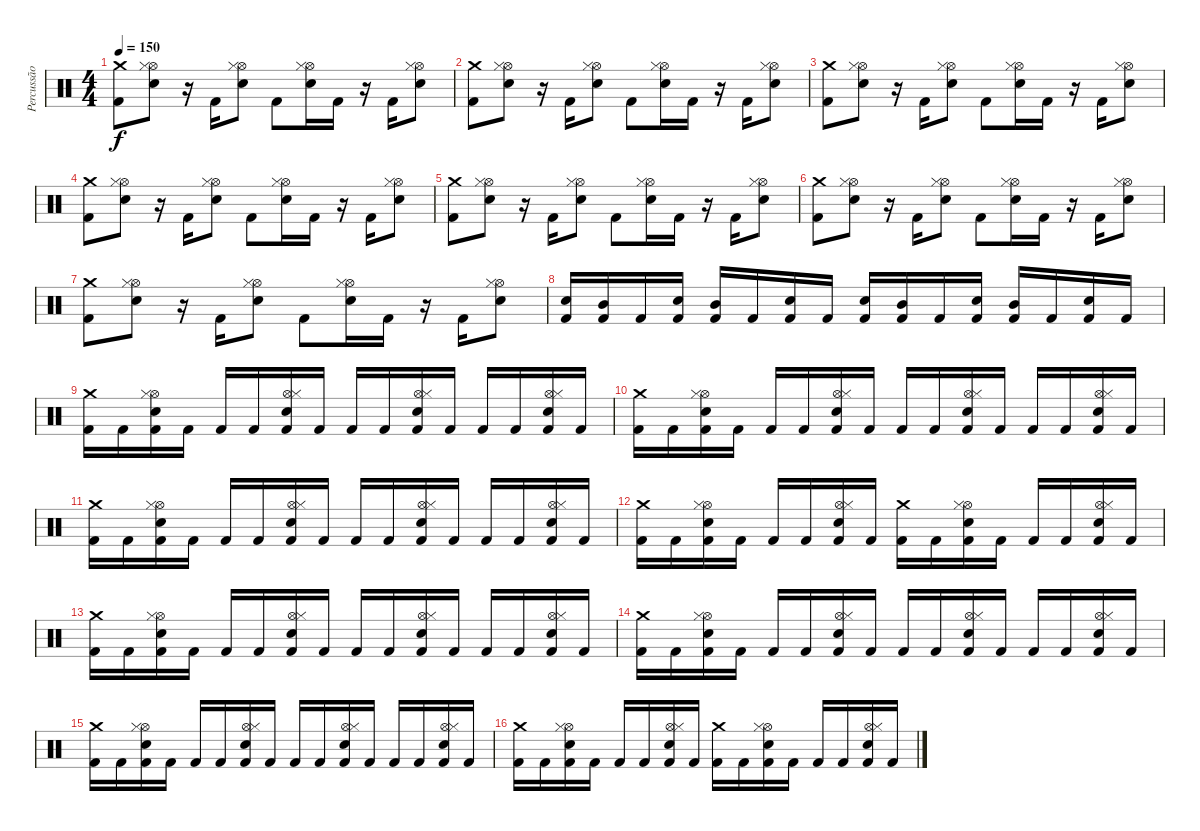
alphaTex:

\track ("Percussão" "Percussão") {instrument percussion}
\staff {score}
\articulation defaults
\ts (4 4)
\tempo 150
\clef neutral
\ks c
("Crash medium (hit)" "Kick (hit) 2").8{dy f} ("Hi-Hat (open)" "Hi-Hat (closed)" "Snare (hit) 2").8 r.16 "Kick (hit) 2".16 ("Hi-Hat (open)" "Hi-Hat (closed)" "Snare (hit) 2").8 "Kick (hit) 2".8 ("Hi-Hat (open)" "Hi-Hat (closed)" "Snare (hit) 2").16 "Kick (hit) 2".16 r.16 "Kick (hit) 2".16 ("Hi-Hat (open)" "Hi-Hat (closed)" "Snare (hit) 2").8 |
("Crash medium (hit)" "Kick (hit) 2").8 ("Hi-Hat (open)" "Hi-Hat (closed)" "Snare (hit) 2").8 r.16 "Kick (hit) 2".16 ("Hi-Hat (open)" "Hi-Hat (closed)" "Snare (hit) 2").8 "Kick (hit) 2".8 ("Hi-Hat (open)" "Hi-Hat (closed)" "Snare (hit) 2").16 "Kick (hit) 2".16 r.16 "Kick (hit) 2".16 ("Hi-Hat (open)" "Hi-Hat (closed)" "Snare (hit) 2").8 |
("Crash medium (hit)" "Kick (hit) 2").8 ("Hi-Hat (open)" "Hi-Hat (closed)" "Snare (hit) 2").8 r.16 "Kick (hit) 2".16 ("Hi-Hat (open)" "Hi-Hat (closed)" "Snare (hit) 2").8 "Kick (hit) 2".8 ("Hi-Hat (open)" "Hi-Hat (closed)" "Snare (hit) 2").16 "Kick (hit) 2".16 r.16 "Kick (hit) 2".16 ("Hi-Hat (open)" "Hi-Hat (closed)" "Snare (hit) 2").8 |
("Crash medium (hit)" "Kick (hit) 2").8 ("Hi-Hat (open)" "Hi-Hat (closed)" "Snare (hit) 2").8 r.16 "Kick (hit) 2".16 ("Hi-Hat (open)" "Hi-Hat (closed)" "Snare (hit) 2").8 "Kick (hit) 2".8 ("Hi-Hat (open)" "Hi-Hat (closed)" "Snare (hit) 2").16 "Kick (hit) 2".16 r.16 "Kick (hit) 2".16 ("Hi-Hat (open)" "Hi-Hat (closed)" "Snare (hit) 2").8 |
("Crash medium (hit)" "Kick (hit) 2").8 ("Hi-Hat (open)" "Hi-Hat (closed)" "Snare (hit) 2").8 r.16 "Kick (hit) 2".16 ("Hi-Hat (open)" "Hi-Hat (closed)" "Snare (hit) 2").8 "Kick (hit) 2".8 ("Hi-Hat (open)" "Hi-Hat (closed)" "Snare (hit) 2").16 "Kick (hit) 2".16 r.16 "Kick (hit) 2".16 ("Hi-Hat (open)" "Hi-Hat (closed)" "Snare (hit) 2").8 |
("Crash medium (hit)" "Kick (hit) 2").8 ("Hi-Hat (open)" "Hi-Hat (closed)" "Snare (hit) 2").8 r.16 "Kick (hit) 2".16 ("Hi-Hat (open)" "Hi-Hat (closed)" "Snare (hit) 2").8 "Kick (hit) 2".8 ("Hi-Hat (open)" "Hi-Hat (closed)" "Snare (hit) 2").16 "Kick (hit) 2".16 r.16 "Kick (hit) 2".16 ("Hi-Hat (open)" "Hi-Hat (closed)" "Snare (hit) 2").8 |
("Crash medium (hit)" "Kick (hit) 2").8 ("Hi-Hat (open)" "Hi-Hat (closed)" "Snare (hit) 2").8 r.16 "Kick (hit) 2".16 ("Hi-Hat (open)" "Hi-Hat (closed)" "Snare (hit) 2").8 "Kick (hit) 2".8 ("Hi-Hat (open)" "Hi-Hat (closed)" "Snare (hit) 2").16 "Kick (hit) 2".16 r.16 "Kick (hit) 2".16 ("Hi-Hat (open)" "Hi-Hat (closed)" "Snare (hit) 2").8 |
("Snare (hit) 2" "Kick (hit) 2").16 ("Mid Tom (hit)" "Kick (hit) 2").16 "Kick (hit) 2".16 ("Snare (hit) 2" "Kick (hit) 2").16 ("Mid Tom (hit)" "Kick (hit) 2").16 "Kick (hit) 2".16 ("Snare (hit) 2" "Kick (hit) 2").16 "Kick (hit) 2".16 ("Snare (hit) 2" "Kick (hit) 2").16 ("Mid Tom (hit)" "Kick (hit) 2").16 "Kick (hit) 2".16 ("Snare (hit) 2" "Kick (hit) 2").16 ("Mid Tom (hit)" "Kick (hit) 2").16 "Kick (hit) 2".16 ("Snare (hit) 2" "Kick (hit) 2").16 "Kick (hit) 2".16 |
("Crash medium (hit)" "Kick (hit) 2").16 "Kick (hit) 2".16 ("Hi-Hat (open)" "Hi-Hat (closed)" "Snare (hit) 2" "Kick (hit) 2").16 "Kick (hit) 2".16 "Kick (hit) 2".16 "Kick (hit) 2".16 ("Hi-Hat (open)" "Hi-Hat (closed)" "Snare (hit) 2" "Kick (hit) 2").16 "Kick (hit) 2".16 "Kick (hit) 2".16 "Kick (hit) 2".16 ("Hi-Hat (open)" "Hi-Hat (closed)" "Snare (hit) 2" "Kick (hit) 2").16 "Kick (hit) 2".16 "Kick (hit) 2".16 "Kick (hit) 2".16 ("Hi-Hat (open)" "Hi-Hat (closed)" "Snare (hit) 2" "Kick (hit) 2").16 "Kick (hit) 2".16 |
("Crash medium (hit)" "Kick (hit) 2").16 "Kick (hit) 2".16 ("Hi-Hat (open)" "Hi-Hat (closed)" "Snare (hit) 2" "Kick (hit) 2").16 "Kick (hit) 2".16 "Kick (hit) 2".16 "Kick (hit) 2".16 ("Hi-Hat (open)" "Hi-Hat (closed)" "Snare (hit) 2" "Kick (hit) 2").16 "Kick (hit) 2".16 "Kick (hit) 2".16 "Kick (hit) 2".16 ("Hi-Hat (open)" "Hi-Hat (closed)" "Snare (hit) 2" "Kick (hit) 2").16 "Kick (hit) 2".16 "Kick (hit) 2".16 "Kick (hit) 2".16 ("Hi-Hat (open)" "Hi-Hat (closed)" "Snare (hit) 2" "Kick (hit) 2").16 "Kick (hit) 2".16 |
("Crash medium (hit)" "Kick (hit) 2").16 "Kick (hit) 2".16 ("Hi-Hat (open)" "Hi-Hat (closed)" "Snare (hit) 2" "Kick (hit) 2").16 "Kick (hit) 2".16 "Kick (hit) 2".16 "Kick (hit) 2".16 ("Hi-Hat (open)" "Hi-Hat (closed)" "Snare (hit) 2" "Kick (hit) 2").16 "Kick (hit) 2".16 "Kick (hit) 2".16 "Kick (hit) 2".16 ("Hi-Hat (open)" "Hi-Hat (closed)" "Snare (hit) 2" "Kick (hit) 2").16 "Kick (hit) 2".16 "Kick (hit) 2".16 "Kick (hit) 2".16 ("Hi-Hat (open)" "Hi-Hat (closed)" "Snare (hit) 2" "Kick (hit) 2").16 "Kick (hit) 2".16 |
("Crash medium (hit)" "Kick (hit) 2").16 "Kick (hit) 2".16 ("Hi-Hat (open)" "Hi-Hat (closed)" "Snare (hit) 2" "Kick (hit) 2").16 "Kick (hit) 2".16 "Kick (hit) 2".16 "Kick (hit) 2".16 ("Hi-Hat (open)" "Hi-Hat (closed)" "Snare (hit) 2" "Kick (hit) 2").16 "Kick (hit) 2".16 ("Crash medium (hit)" "Kick (hit) 2").16 "Kick (hit) 2".16 ("Hi-Hat (open)" "Hi-Hat (closed)" "Snare (hit) 2" "Kick (hit) 2").16 "Kick (hit) 2".16 "Kick (hit) 2".16 "Kick (hit) 2".16 ("Hi-Hat (open)" "Hi-Hat (closed)" "Snare (hit) 2" "Kick (hit) 2").16 "Kick (hit) 2".16 |
("Crash medium (hit)" "Kick (hit) 2").16 "Kick (hit) 2".16 ("Hi-Hat (open)" "Hi-Hat (closed)" "Snare (hit) 2" "Kick (hit) 2").16 "Kick (hit) 2".16 "Kick (hit) 2".16 "Kick (hit) 2".16 ("Hi-Hat (open)" "Hi-Hat (closed)" "Snare (hit) 2" "Kick (hit) 2").16 "Kick (hit) 2".16 "Kick (hit) 2".16 "Kick (hit) 2".16 ("Hi-Hat (open)" "Hi-Hat (closed)" "Snare (hit) 2" "Kick (hit) 2").16 "Kick (hit) 2".16 "Kick (hit) 2".16 "Kick (hit) 2".16 ("Hi-Hat (open)" "Hi-Hat (closed)" "Snare (hit) 2" "Kick (hit) 2").16 "Kick (hit) 2".16 |
("Crash medium (hit)" "Kick (hit) 2").16 "Kick (hit) 2".16 ("Hi-Hat (open)" "Hi-Hat (closed)" "Snare (hit) 2" "Kick (hit) 2").16 "Kick (hit) 2".16 "Kick (hit) 2".16 "Kick (hit) 2".16 ("Hi-Hat (open)" "Hi-Hat (closed)" "Snare (hit) 2" "Kick (hit) 2").16 "Kick (hit) 2".16 "Kick (hit) 2".16 "Kick (hit) 2".16 ("Hi-Hat (open)" "Hi-Hat (closed)" "Snare (hit) 2" "Kick (hit) 2").16 "Kick (hit) 2".16 "Kick (hit) 2".16 "Kick (hit) 2".16 ("Hi-Hat (open)" "Hi-Hat (closed)" "Snare (hit) 2" "Kick (hit) 2").16 "Kick (hit) 2".16 |
("Crash medium (hit)" "Kick (hit) 2").16 "Kick (hit) 2".16 ("Hi-Hat (open)" "Hi-Hat (closed)" "Snare (hit) 2" "Kick (hit) 2").16 "Kick (hit) 2".16 "Kick (hit) 2".16 "Kick (hit) 2".16 ("Hi-Hat (open)" "Hi-Hat (closed)" "Snare (hit) 2" "Kick (hit) 2").16 "Kick (hit) 2".16 "Kick (hit) 2".16 "Kick (hit) 2".16 ("Hi-Hat (open)" "Hi-Hat (closed)" "Snare (hit) 2" "Kick (hit) 2").16 "Kick (hit) 2".16 "Kick (hit) 2".16 "Kick (hit) 2".16 ("Hi-Hat (open)" "Hi-Hat (closed)" "Snare (hit) 2" "Kick (hit) 2").16 "Kick (hit) 2".16 |
("Crash medium (hit)" "Kick (hit) 2").16 "Kick (hit) 2".16 ("Hi-Hat (open)" "Hi-Hat (closed)" "Snare (hit) 2" "Kick (hit) 2").16 "Kick (hit) 2".16 "Kick (hit) 2".16 "Kick (hit) 2".16 ("Hi-Hat (open)" "Hi-Hat (closed)" "Snare (hit) 2" "Kick (hit) 2").16 "Kick (hit) 2".16 ("Crash medium (hit)" "Kick (hit) 2").16 "Kick (hit) 2".16 ("Hi-Hat (open)" "Hi-Hat (closed)" "Snare (hit) 2" "Kick (hit) 2").16 "Kick (hit) 2".16 "Kick (hit) 2".16 "Kick (hit) 2".16 ("Hi-Hat (open)" "Hi-Hat (closed)" "Snare (hit) 2" "Kick (hit) 2").16 "Kick (hit) 2".16
